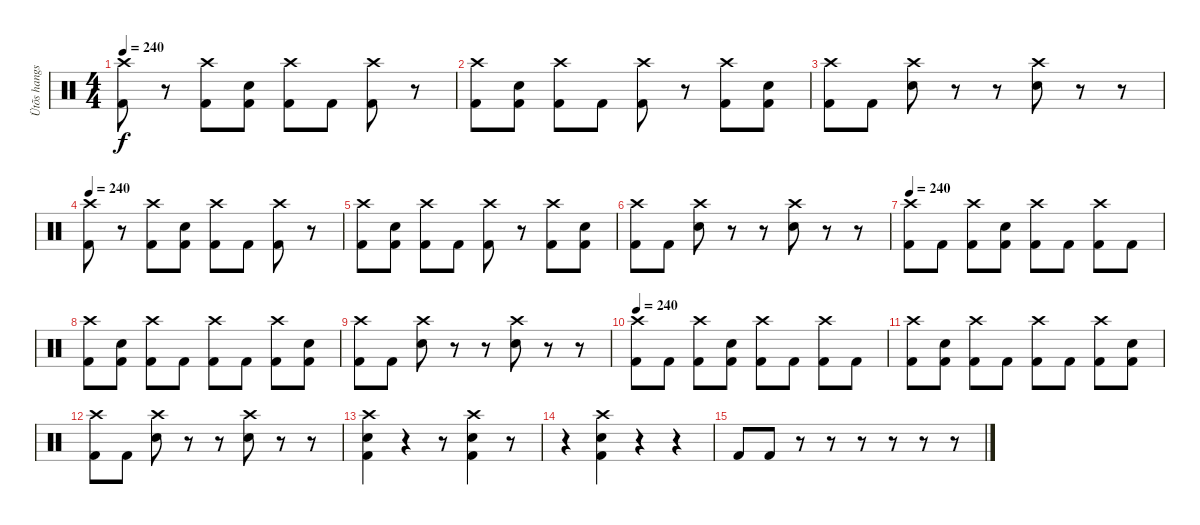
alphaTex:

\track ("Ütõs hangszer" "Ütõs hangs") {instrument percussion}
\staff {score}
\articulation defaults
\ts (4 4)
\tempo 240
\clef neutral
\ks c
("Crash high (hit)" "Kick (hit) 2").8{dy f} r.8 ("Crash high (hit)" "Kick (hit) 2").8 ("Snare (hit) 2" "Kick (hit) 2").8 ("Crash high (hit)" "Kick (hit) 2").8 "Kick (hit) 2".8 ("Crash high (hit)" "Kick (hit) 2").8 r.8 |
("Crash high (hit)" "Kick (hit) 2").8 ("Snare (hit) 2" "Kick (hit) 2").8 ("Crash high (hit)" "Kick (hit) 2").8 "Kick (hit) 2".8 ("Crash high (hit)" "Kick (hit) 2").8 r.8 ("Crash high (hit)" "Kick (hit) 2").8 ("Snare (hit) 2" "Kick (hit) 2").8 |
("Crash high (hit)" "Kick (hit) 2").8 "Kick (hit) 2".8 ("Crash high (hit)" "Snare (hit) 2").8 r.8 r.8 ("Crash high (hit)" "Snare (hit) 2").8 r.8 r.8 |
\tempo 240
("Crash high (hit)" "Kick (hit) 2").8 r.8 ("Crash high (hit)" "Kick (hit) 2").8 ("Snare (hit) 2" "Kick (hit) 2").8 ("Crash high (hit)" "Kick (hit) 2").8 "Kick (hit) 2".8 ("Crash high (hit)" "Kick (hit) 2").8 r.8 |
("Crash high (hit)" "Kick (hit) 2").8 ("Snare (hit) 2" "Kick (hit) 2").8 ("Crash high (hit)" "Kick (hit) 2").8 "Kick (hit) 2".8 ("Crash high (hit)" "Kick (hit) 2").8 r.8 ("Crash high (hit)" "Kick (hit) 2").8 ("Snare (hit) 2" "Kick (hit) 2").8 |
("Crash high (hit)" "Kick (hit) 2").8 "Kick (hit) 2".8 ("Crash high (hit)" "Snare (hit) 2").8 r.8 r.8 ("Crash high (hit)" "Snare (hit) 2").8 r.8 r.8 |
\tempo 240
("Crash high (hit)" "Kick (hit) 2").8 "Kick (hit) 2".8 ("Crash high (hit)" "Kick (hit) 2").8 ("Snare (hit) 2" "Kick (hit) 2").8 ("Crash high (hit)" "Kick (hit) 2").8 "Kick (hit) 2".8 ("Crash high (hit)" "Kick (hit) 2").8 "Kick (hit) 2".8 |
("Crash high (hit)" "Kick (hit) 2").8 ("Snare (hit) 2" "Kick (hit) 2").8 ("Crash high (hit)" "Kick (hit) 2").8 "Kick (hit) 2".8 ("Crash high (hit)" "Kick (hit) 2").8 "Kick (hit) 2".8 ("Crash high (hit)" "Kick (hit) 2").8 ("Snare (hit) 2" "Kick (hit) 2").8 |
("Crash high (hit)" "Kick (hit) 2").8 "Kick (hit) 2".8 ("Crash high (hit)" "Snare (hit) 2").8 r.8 r.8 ("Crash high (hit)" "Snare (hit) 2").8 r.8 r.8 |
\tempo 240
("Crash high (hit)" "Kick (hit) 2").8 "Kick (hit) 2".8 ("Crash high (hit)" "Kick (hit) 2").8 ("Snare (hit) 2" "Kick (hit) 2").8 ("Crash high (hit)" "Kick (hit) 2").8 "Kick (hit) 2".8 ("Crash high (hit)" "Kick (hit) 2").8 "Kick (hit) 2".8 |
("Crash high (hit)" "Kick (hit) 2").8 ("Snare (hit) 2" "Kick (hit) 2").8 ("Crash high (hit)" "Kick (hit) 2").8 "Kick (hit) 2".8 ("Crash high (hit)" "Kick (hit) 2").8 "Kick (hit) 2".8 ("Crash high (hit)" "Kick (hit) 2").8 ("Snare (hit) 2" "Kick (hit) 2").8 |
("Crash high (hit)" "Kick (hit) 2").8 "Kick (hit) 2".8 ("Crash high (hit)" "Snare (hit) 2").8 r.8 r.8 ("Crash high (hit)" "Snare (hit) 2").8 r.8 r.8 |
("Crash high (hit)" "Snare (hit) 2" "Kick (hit) 2").4 r.4 r.8 ("Crash high (hit)" "Snare (hit) 2" "Kick (hit) 2").4 r.8 |
r.4 ("Crash high (hit)" "Snare (hit) 2" "Kick (hit) 2").4 r.4 r.4 |
"Kick (hit) 2".8 "Kick (hit) 2".8 r.8 r.8 r.8 r.8 r.8 r.8
